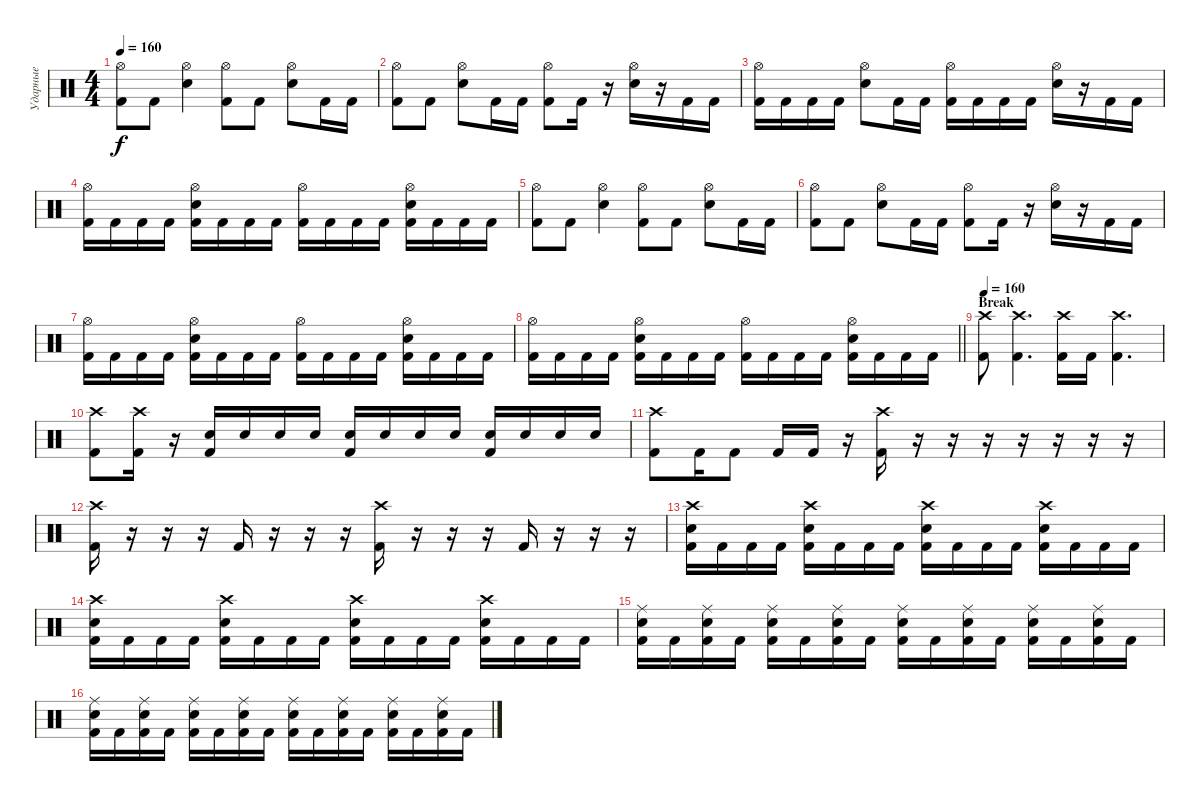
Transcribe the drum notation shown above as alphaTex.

\track ("Ударные" "Ударные") {instrument percussion}
\staff {score}
\articulation defaults
\ts (4 4)
\tempo 160
\clef neutral
\ks c
("Hi-Hat (open)" "Kick (hit) 2").8{dy f} "Kick (hit) 2".8 ("Hi-Hat (open)" "Electric Snare (hit)").4 ("Hi-Hat (open)" "Kick (hit) 2").8 "Kick (hit) 2".8 ("Hi-Hat (open)" "Electric Snare (hit)").8 "Kick (hit) 2".16 "Kick (hit) 2".16 |
("Hi-Hat (open)" "Kick (hit) 2").8 "Kick (hit) 2".8 ("Hi-Hat (open)" "Electric Snare (hit)").8 "Kick (hit) 2".16 "Kick (hit) 2".16 ("Hi-Hat (open)" "Kick (hit) 2").8 "Kick (hit) 2".16 r.16 ("Hi-Hat (open)" "Electric Snare (hit)").16 r.16 "Kick (hit) 2".16 "Kick (hit) 2".16 |
("Hi-Hat (open)" "Kick (hit) 2").16 "Kick (hit) 2".16 "Kick (hit) 2".16 "Kick (hit) 2".16 ("Hi-Hat (open)" "Electric Snare (hit)").8 "Kick (hit) 2".16 "Kick (hit) 2".16 ("Hi-Hat (open)" "Kick (hit) 2").16 "Kick (hit) 2".16 "Kick (hit) 2".16 "Kick (hit) 2".16 ("Hi-Hat (open)" "Electric Snare (hit)").16 r.16 "Kick (hit) 2".16 "Kick (hit) 2".16 |
("Hi-Hat (open)" "Kick (hit) 2").16 "Kick (hit) 2".16 "Kick (hit) 2".16 "Kick (hit) 2".16 ("Hi-Hat (open)" "Electric Snare (hit)" "Kick (hit) 2").16 "Kick (hit) 2".16 "Kick (hit) 2".16 "Kick (hit) 2".16 ("Hi-Hat (open)" "Kick (hit) 2").16 "Kick (hit) 2".16 "Kick (hit) 2".16 "Kick (hit) 2".16 ("Hi-Hat (open)" "Electric Snare (hit)" "Kick (hit) 2").16 "Kick (hit) 2".16 "Kick (hit) 2".16 "Kick (hit) 2".16 |
("Hi-Hat (open)" "Kick (hit) 2").8 "Kick (hit) 2".8 ("Hi-Hat (open)" "Electric Snare (hit)").4 ("Hi-Hat (open)" "Kick (hit) 2").8 "Kick (hit) 2".8 ("Hi-Hat (open)" "Electric Snare (hit)").8 "Kick (hit) 2".16 "Kick (hit) 2".16 |
("Hi-Hat (open)" "Kick (hit) 2").8 "Kick (hit) 2".8 ("Hi-Hat (open)" "Electric Snare (hit)").8 "Kick (hit) 2".16 "Kick (hit) 2".16 ("Hi-Hat (open)" "Kick (hit) 2").8 "Kick (hit) 2".16 r.16 ("Hi-Hat (open)" "Electric Snare (hit)").16 r.16 "Kick (hit) 2".16 "Kick (hit) 2".16 |
("Hi-Hat (open)" "Kick (hit) 2").16 "Kick (hit) 2".16 "Kick (hit) 2".16 "Kick (hit) 2".16 ("Hi-Hat (open)" "Electric Snare (hit)" "Kick (hit) 2").16 "Kick (hit) 2".16 "Kick (hit) 2".16 "Kick (hit) 2".16 ("Hi-Hat (open)" "Kick (hit) 2").16 "Kick (hit) 2".16 "Kick (hit) 2".16 "Kick (hit) 2".16 ("Hi-Hat (open)" "Electric Snare (hit)" "Kick (hit) 2").16 "Kick (hit) 2".16 "Kick (hit) 2".16 "Kick (hit) 2".16 |
\barLineRight lightlight
("Hi-Hat (open)" "Kick (hit) 2").16 "Kick (hit) 2".16 "Kick (hit) 2".16 "Kick (hit) 2".16 ("Hi-Hat (open)" "Electric Snare (hit)" "Kick (hit) 2").16 "Kick (hit) 2".16 "Kick (hit) 2".16 "Kick (hit) 2".16 ("Hi-Hat (open)" "Kick (hit) 2").16 "Kick (hit) 2".16 "Kick (hit) 2".16 "Kick (hit) 2".16 ("Hi-Hat (open)" "Electric Snare (hit)" "Kick (hit) 2").16 "Kick (hit) 2".16 "Kick (hit) 2".16 "Kick (hit) 2".16 |
\section ("" "Break")
\tempo 160
("Crash high (hit)" "Kick (hit) 2").8 ("Crash high (hit)" "Kick (hit) 2").4{d} ("Crash high (hit)" "Kick (hit) 2").16 "Kick (hit) 2".16 ("Crash high (hit)" "Kick (hit) 2").4{d} |
("Crash high (hit)" "Kick (hit) 2").8 ("Crash high (hit)" "Kick (hit) 2").16 r.16 ("Electric Snare (hit)" "Kick (hit) 2").16 "Electric Snare (hit)".16 "Electric Snare (hit)".16 "Electric Snare (hit)".16 ("Electric Snare (hit)" "Kick (hit) 2").16 "Electric Snare (hit)".16 "Electric Snare (hit)".16 "Electric Snare (hit)".16 ("Electric Snare (hit)" "Kick (hit) 2").16 "Electric Snare (hit)".16 "Electric Snare (hit)".16 "Electric Snare (hit)".16 |
("Crash high (hit)" "Kick (hit) 2").8 "Kick (hit) 2".16 "Kick (hit) 2".8 "Kick (hit) 2".16 "Kick (hit) 2".16 r.16 ("Crash high (hit)" "Kick (hit) 2").16 r.16 r.16 r.16 r.16 r.16 r.16 r.16 |
("Crash high (hit)" "Kick (hit) 2").16 r.16 r.16 r.16 "Kick (hit) 2".16 r.16 r.16 r.16 ("Crash high (hit)" "Kick (hit) 2").16 r.16 r.16 r.16 "Kick (hit) 2".16 r.16 r.16 r.16 |
("Crash high (hit)" "Electric Snare (hit)" "Kick (hit) 2").16 "Kick (hit) 2".16 "Kick (hit) 2".16 "Kick (hit) 2".16 ("Crash high (hit)" "Electric Snare (hit)" "Kick (hit) 2").16 "Kick (hit) 2".16 "Kick (hit) 2".16 "Kick (hit) 2".16 ("Crash high (hit)" "Electric Snare (hit)" "Kick (hit) 2").16 "Kick (hit) 2".16 "Kick (hit) 2".16 "Kick (hit) 2".16 ("Crash high (hit)" "Electric Snare (hit)" "Kick (hit) 2").16 "Kick (hit) 2".16 "Kick (hit) 2".16 "Kick (hit) 2".16 |
("Crash high (hit)" "Electric Snare (hit)" "Kick (hit) 2").16 "Kick (hit) 2".16 "Kick (hit) 2".16 "Kick (hit) 2".16 ("Crash high (hit)" "Electric Snare (hit)" "Kick (hit) 2").16 "Kick (hit) 2".16 "Kick (hit) 2".16 "Kick (hit) 2".16 ("Crash high (hit)" "Electric Snare (hit)" "Kick (hit) 2").16 "Kick (hit) 2".16 "Kick (hit) 2".16 "Kick (hit) 2".16 ("Crash high (hit)" "Electric Snare (hit)" "Kick (hit) 2").16 "Kick (hit) 2".16 "Kick (hit) 2".16 "Kick (hit) 2".16 |
("Ride (middle)" "Electric Snare (hit)" "Kick (hit) 2").16 "Kick (hit) 2".16 ("Ride (middle)" "Electric Snare (hit)" "Kick (hit) 2").16 "Kick (hit) 2".16 ("Ride (middle)" "Electric Snare (hit)" "Kick (hit) 2").16 "Kick (hit) 2".16 ("Ride (middle)" "Electric Snare (hit)" "Kick (hit) 2").16 "Kick (hit) 2".16 ("Ride (middle)" "Electric Snare (hit)" "Kick (hit) 2").16 "Kick (hit) 2".16 ("Ride (middle)" "Electric Snare (hit)" "Kick (hit) 2").16 "Kick (hit) 2".16 ("Ride (middle)" "Electric Snare (hit)" "Kick (hit) 2").16 "Kick (hit) 2".16 ("Ride (middle)" "Electric Snare (hit)" "Kick (hit) 2").16 "Kick (hit) 2".16 |
("Ride (middle)" "Electric Snare (hit)" "Kick (hit) 2").16 "Kick (hit) 2".16 ("Ride (middle)" "Electric Snare (hit)" "Kick (hit) 2").16 "Kick (hit) 2".16 ("Ride (middle)" "Electric Snare (hit)" "Kick (hit) 2").16 "Kick (hit) 2".16 ("Ride (middle)" "Electric Snare (hit)" "Kick (hit) 2").16 "Kick (hit) 2".16 ("Ride (middle)" "Electric Snare (hit)" "Kick (hit) 2").16 "Kick (hit) 2".16 ("Ride (middle)" "Electric Snare (hit)" "Kick (hit) 2").16 "Kick (hit) 2".16 ("Ride (middle)" "Electric Snare (hit)" "Kick (hit) 2").16 "Kick (hit) 2".16 ("Ride (middle)" "Electric Snare (hit)" "Kick (hit) 2").16 "Kick (hit) 2".16
